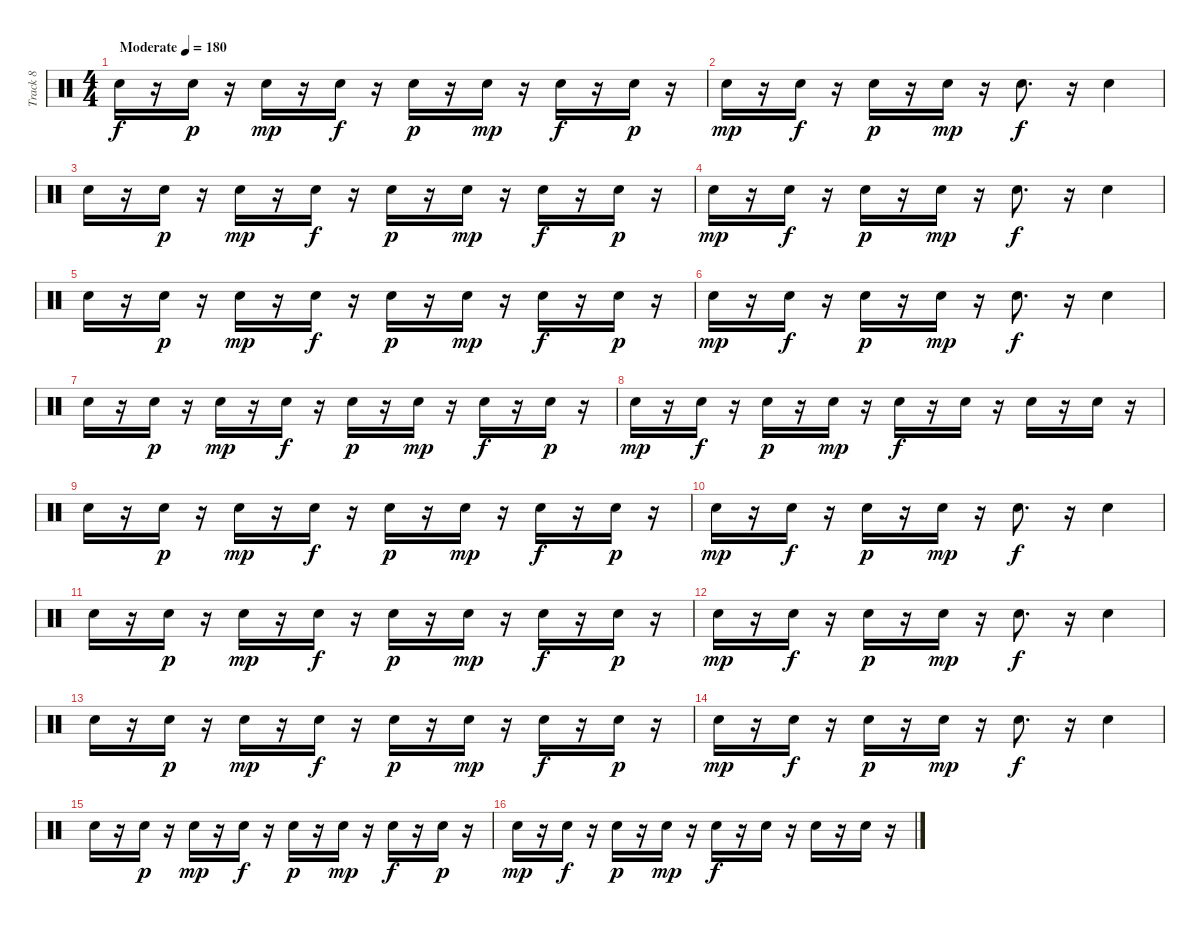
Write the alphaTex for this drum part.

\track ("Track 8" "Track 8") {instrument percussion}
\staff {score}
\articulation defaults
\ts (4 4)
\tempo (180 "Moderate")
\clef neutral
\ks c "Electric Snare (hit)".16{dy f}
r.16 "Electric Snare (hit)".16{dy p} r.16 "Electric Snare (hit)".16{dy mp} r.16 "Electric Snare (hit)".16{dy f} r.16 "Electric Snare (hit)".16{dy p} r.16 "Electric Snare (hit)".16{dy mp} r.16 "Electric Snare (hit)".16{dy f} r.16 "Electric Snare (hit)".16{dy p} r.16 |
"Electric Snare (hit)".16{dy mp} r.16 "Electric Snare (hit)".16{dy f} r.16 "Electric Snare (hit)".16{dy p} r.16 "Electric Snare (hit)".16{dy mp} r.16 "Electric Snare (hit)".8{d dy f} r.16 "Electric Snare (hit)".4 |
"Electric Snare (hit)".16 r.16 "Electric Snare (hit)".16{dy p} r.16 "Electric Snare (hit)".16{dy mp} r.16 "Electric Snare (hit)".16{dy f} r.16 "Electric Snare (hit)".16{dy p} r.16 "Electric Snare (hit)".16{dy mp} r.16 "Electric Snare (hit)".16{dy f} r.16 "Electric Snare (hit)".16{dy p} r.16 |
"Electric Snare (hit)".16{dy mp} r.16 "Electric Snare (hit)".16{dy f} r.16 "Electric Snare (hit)".16{dy p} r.16 "Electric Snare (hit)".16{dy mp} r.16 "Electric Snare (hit)".8{d dy f} r.16 "Electric Snare (hit)".4 |
"Electric Snare (hit)".16 r.16 "Electric Snare (hit)".16{dy p} r.16 "Electric Snare (hit)".16{dy mp} r.16 "Electric Snare (hit)".16{dy f} r.16 "Electric Snare (hit)".16{dy p} r.16 "Electric Snare (hit)".16{dy mp} r.16 "Electric Snare (hit)".16{dy f} r.16 "Electric Snare (hit)".16{dy p} r.16 |
"Electric Snare (hit)".16{dy mp} r.16 "Electric Snare (hit)".16{dy f} r.16 "Electric Snare (hit)".16{dy p} r.16 "Electric Snare (hit)".16{dy mp} r.16 "Electric Snare (hit)".8{d dy f} r.16 "Electric Snare (hit)".4 |
"Electric Snare (hit)".16 r.16 "Electric Snare (hit)".16{dy p} r.16 "Electric Snare (hit)".16{dy mp} r.16 "Electric Snare (hit)".16{dy f} r.16 "Electric Snare (hit)".16{dy p} r.16 "Electric Snare (hit)".16{dy mp} r.16 "Electric Snare (hit)".16{dy f} r.16 "Electric Snare (hit)".16{dy p} r.16 |
"Electric Snare (hit)".16{dy mp} r.16 "Electric Snare (hit)".16{dy f} r.16 "Electric Snare (hit)".16{dy p} r.16 "Electric Snare (hit)".16{dy mp} r.16 "Electric Snare (hit)".16{dy f} r.16 "Electric Snare (hit)".16 r.16 "Electric Snare (hit)".16 r.16 "Electric Snare (hit)".16 r.16 |
"Electric Snare (hit)".16 r.16 "Electric Snare (hit)".16{dy p} r.16 "Electric Snare (hit)".16{dy mp} r.16 "Electric Snare (hit)".16{dy f} r.16 "Electric Snare (hit)".16{dy p} r.16 "Electric Snare (hit)".16{dy mp} r.16 "Electric Snare (hit)".16{dy f} r.16 "Electric Snare (hit)".16{dy p} r.16 |
"Electric Snare (hit)".16{dy mp} r.16 "Electric Snare (hit)".16{dy f} r.16 "Electric Snare (hit)".16{dy p} r.16 "Electric Snare (hit)".16{dy mp} r.16 "Electric Snare (hit)".8{d dy f} r.16 "Electric Snare (hit)".4 |
"Electric Snare (hit)".16 r.16 "Electric Snare (hit)".16{dy p} r.16 "Electric Snare (hit)".16{dy mp} r.16 "Electric Snare (hit)".16{dy f} r.16 "Electric Snare (hit)".16{dy p} r.16 "Electric Snare (hit)".16{dy mp} r.16 "Electric Snare (hit)".16{dy f} r.16 "Electric Snare (hit)".16{dy p} r.16 |
"Electric Snare (hit)".16{dy mp} r.16 "Electric Snare (hit)".16{dy f} r.16 "Electric Snare (hit)".16{dy p} r.16 "Electric Snare (hit)".16{dy mp} r.16 "Electric Snare (hit)".8{d dy f} r.16 "Electric Snare (hit)".4 |
"Electric Snare (hit)".16 r.16 "Electric Snare (hit)".16{dy p} r.16 "Electric Snare (hit)".16{dy mp} r.16 "Electric Snare (hit)".16{dy f} r.16 "Electric Snare (hit)".16{dy p} r.16 "Electric Snare (hit)".16{dy mp} r.16 "Electric Snare (hit)".16{dy f} r.16 "Electric Snare (hit)".16{dy p} r.16 |
"Electric Snare (hit)".16{dy mp} r.16 "Electric Snare (hit)".16{dy f} r.16 "Electric Snare (hit)".16{dy p} r.16 "Electric Snare (hit)".16{dy mp} r.16 "Electric Snare (hit)".8{d dy f} r.16 "Electric Snare (hit)".4 |
"Electric Snare (hit)".16 r.16 "Electric Snare (hit)".16{dy p} r.16 "Electric Snare (hit)".16{dy mp} r.16 "Electric Snare (hit)".16{dy f} r.16 "Electric Snare (hit)".16{dy p} r.16 "Electric Snare (hit)".16{dy mp} r.16 "Electric Snare (hit)".16{dy f} r.16 "Electric Snare (hit)".16{dy p} r.16 |
"Electric Snare (hit)".16{dy mp} r.16 "Electric Snare (hit)".16{dy f} r.16 "Electric Snare (hit)".16{dy p} r.16 "Electric Snare (hit)".16{dy mp} r.16 "Electric Snare (hit)".16{dy f} r.16 "Electric Snare (hit)".16 r.16 "Electric Snare (hit)".16 r.16 "Electric Snare (hit)".16 r.16
